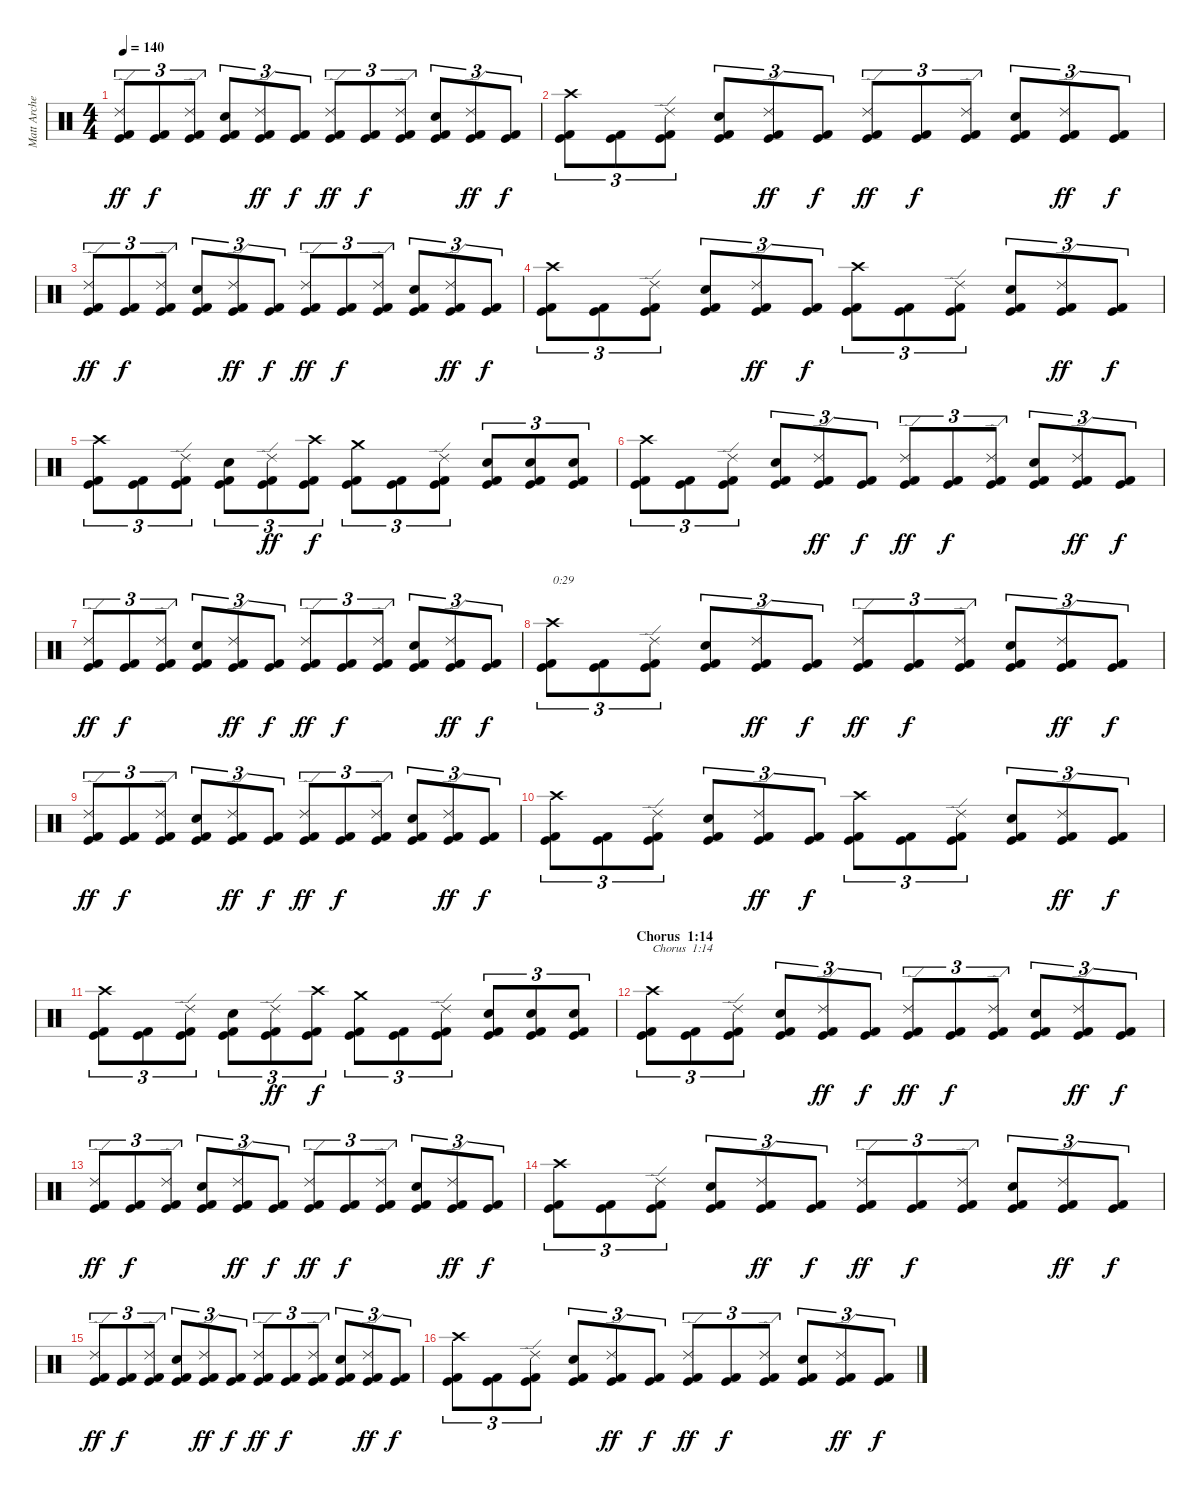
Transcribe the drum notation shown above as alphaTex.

\track ("Matt Archer" "Matt Arche") {instrument percussion}
\staff {score}
\articulation defaults
\ts (4 4)
\tempo 140
\clef neutral
\ks c
("Kick (hit)" "Kick (hit) 2" "Ride (edge) 2").8{tu (3 2) dy ff} ("Kick (hit)" "Kick (hit) 2").8{tu (3 2) dy f} ("Kick (hit)" "Kick (hit) 2" "Ride (edge) 2").8{tu (3 2)} ("Kick (hit)" "Kick (hit) 2" "Electric Snare (hit)").8{tu (3 2)} ("Kick (hit)" "Kick (hit) 2" "Ride (edge) 2").8{tu (3 2) dy ff} ("Kick (hit)" "Kick (hit) 2").8{tu (3 2) dy f} ("Kick (hit)" "Kick (hit) 2" "Ride (edge) 2").8{tu (3 2) dy ff} ("Kick (hit)" "Kick (hit) 2").8{tu (3 2) dy f} ("Kick (hit)" "Kick (hit) 2" "Ride (edge) 2").8{tu (3 2)} ("Kick (hit)" "Kick (hit) 2" "Electric Snare (hit)").8{tu (3 2)} ("Kick (hit)" "Kick (hit) 2" "Ride (edge) 2").8{tu (3 2) dy ff} ("Kick (hit)" "Kick (hit) 2").8{tu (3 2) dy f} |
("Kick (hit)" "Kick (hit) 2" "Crash high (hit)").8{tu (3 2)} ("Kick (hit)" "Kick (hit) 2").8{tu (3 2)} ("Kick (hit)" "Kick (hit) 2" "Ride (edge) 2").8{tu (3 2)} ("Kick (hit)" "Kick (hit) 2" "Electric Snare (hit)").8{tu (3 2)} ("Kick (hit)" "Kick (hit) 2" "Ride (edge) 2").8{tu (3 2) dy ff} ("Kick (hit)" "Kick (hit) 2").8{tu (3 2) dy f} ("Kick (hit)" "Kick (hit) 2" "Ride (edge) 2").8{tu (3 2) dy ff} ("Kick (hit)" "Kick (hit) 2").8{tu (3 2) dy f} ("Kick (hit)" "Kick (hit) 2" "Ride (edge) 2").8{tu (3 2)} ("Kick (hit)" "Kick (hit) 2" "Electric Snare (hit)").8{tu (3 2)} ("Kick (hit)" "Kick (hit) 2" "Ride (edge) 2").8{tu (3 2) dy ff} ("Kick (hit)" "Kick (hit) 2").8{tu (3 2) dy f} |
("Kick (hit)" "Kick (hit) 2" "Ride (edge) 2").8{tu (3 2) dy ff} ("Kick (hit)" "Kick (hit) 2").8{tu (3 2) dy f} ("Kick (hit)" "Kick (hit) 2" "Ride (edge) 2").8{tu (3 2)} ("Kick (hit)" "Kick (hit) 2" "Electric Snare (hit)").8{tu (3 2)} ("Kick (hit)" "Kick (hit) 2" "Ride (edge) 2").8{tu (3 2) dy ff} ("Kick (hit)" "Kick (hit) 2").8{tu (3 2) dy f} ("Kick (hit)" "Kick (hit) 2" "Ride (edge) 2").8{tu (3 2) dy ff} ("Kick (hit)" "Kick (hit) 2").8{tu (3 2) dy f} ("Kick (hit)" "Kick (hit) 2" "Ride (edge) 2").8{tu (3 2)} ("Kick (hit)" "Kick (hit) 2" "Electric Snare (hit)").8{tu (3 2)} ("Kick (hit)" "Kick (hit) 2" "Ride (edge) 2").8{tu (3 2) dy ff} ("Kick (hit)" "Kick (hit) 2").8{tu (3 2) dy f} |
("Kick (hit)" "Kick (hit) 2" "Crash high (hit)").8{tu (3 2)} ("Kick (hit)" "Kick (hit) 2").8{tu (3 2)} ("Kick (hit)" "Kick (hit) 2" "Ride (edge) 2").8{tu (3 2)} ("Kick (hit)" "Kick (hit) 2" "Electric Snare (hit)").8{tu (3 2)} ("Kick (hit)" "Kick (hit) 2" "Ride (edge) 2").8{tu (3 2) dy ff} ("Kick (hit)" "Kick (hit) 2").8{tu (3 2) dy f} ("Kick (hit)" "Kick (hit) 2" "Crash high (hit)").8{tu (3 2)} ("Kick (hit)" "Kick (hit) 2").8{tu (3 2)} ("Kick (hit)" "Kick (hit) 2" "Ride (edge) 2").8{tu (3 2)} ("Kick (hit)" "Kick (hit) 2" "Electric Snare (hit)").8{tu (3 2)} ("Kick (hit)" "Kick (hit) 2" "Ride (edge) 2").8{tu (3 2) dy ff} ("Kick (hit)" "Kick (hit) 2").8{tu (3 2) dy f} |
("Kick (hit)" "Kick (hit) 2" "Crash high (hit)").8{tu (3 2)} ("Kick (hit)" "Kick (hit) 2").8{tu (3 2)} ("Kick (hit)" "Kick (hit) 2" "Ride (edge) 2").8{tu (3 2)} ("Kick (hit)" "Kick (hit) 2" "Electric Snare (hit)").8{tu (3 2)} ("Kick (hit)" "Kick (hit) 2" "Ride (edge) 2").8{tu (3 2) dy ff} ("Kick (hit)" "Kick (hit) 2" "Crash high (hit)").8{tu (3 2) dy f} ("Kick (hit)" "Kick (hit) 2" "Crash medium (hit)").8{tu (3 2)} ("Kick (hit)" "Kick (hit) 2").8{tu (3 2)} ("Kick (hit)" "Kick (hit) 2" "Ride (edge) 2").8{tu (3 2)} ("Kick (hit)" "Kick (hit) 2" "Electric Snare (hit)").8{tu (3 2)} ("Kick (hit)" "Kick (hit) 2" "Electric Snare (hit)").8{tu (3 2)} ("Kick (hit)" "Kick (hit) 2" "Electric Snare (hit)").8{tu (3 2)} |
("Kick (hit)" "Kick (hit) 2" "Crash high (hit)").8{tu (3 2)} ("Kick (hit)" "Kick (hit) 2").8{tu (3 2)} ("Kick (hit)" "Kick (hit) 2" "Ride (edge) 2").8{tu (3 2)} ("Kick (hit)" "Kick (hit) 2" "Electric Snare (hit)").8{tu (3 2)} ("Kick (hit)" "Kick (hit) 2" "Ride (edge) 2").8{tu (3 2) dy ff} ("Kick (hit)" "Kick (hit) 2").8{tu (3 2) dy f} ("Kick (hit)" "Kick (hit) 2" "Ride (edge) 2").8{tu (3 2) dy ff} ("Kick (hit)" "Kick (hit) 2").8{tu (3 2) dy f} ("Kick (hit)" "Kick (hit) 2" "Ride (edge) 2").8{tu (3 2)} ("Kick (hit)" "Kick (hit) 2" "Electric Snare (hit)").8{tu (3 2)} ("Kick (hit)" "Kick (hit) 2" "Ride (edge) 2").8{tu (3 2) dy ff} ("Kick (hit)" "Kick (hit) 2").8{tu (3 2) dy f} |
("Kick (hit)" "Kick (hit) 2" "Ride (edge) 2").8{tu (3 2) dy ff} ("Kick (hit)" "Kick (hit) 2").8{tu (3 2) dy f} ("Kick (hit)" "Kick (hit) 2" "Ride (edge) 2").8{tu (3 2)} ("Kick (hit)" "Kick (hit) 2" "Electric Snare (hit)").8{tu (3 2)} ("Kick (hit)" "Kick (hit) 2" "Ride (edge) 2").8{tu (3 2) dy ff} ("Kick (hit)" "Kick (hit) 2").8{tu (3 2) dy f} ("Kick (hit)" "Kick (hit) 2" "Ride (edge) 2").8{tu (3 2) dy ff} ("Kick (hit)" "Kick (hit) 2").8{tu (3 2) dy f} ("Kick (hit)" "Kick (hit) 2" "Ride (edge) 2").8{tu (3 2)} ("Kick (hit)" "Kick (hit) 2" "Electric Snare (hit)").8{tu (3 2)} ("Kick (hit)" "Kick (hit) 2" "Ride (edge) 2").8{tu (3 2) dy ff} ("Kick (hit)" "Kick (hit) 2").8{tu (3 2) dy f} |
("Kick (hit)" "Kick (hit) 2" "Crash high (hit)").8{tu (3 2) txt "0:29"} ("Kick (hit)" "Kick (hit) 2").8{tu (3 2)} ("Kick (hit)" "Kick (hit) 2" "Ride (edge) 2").8{tu (3 2)} ("Kick (hit)" "Kick (hit) 2" "Electric Snare (hit)").8{tu (3 2)} ("Kick (hit)" "Kick (hit) 2" "Ride (edge) 2").8{tu (3 2) dy ff} ("Kick (hit)" "Kick (hit) 2").8{tu (3 2) dy f} ("Kick (hit)" "Kick (hit) 2" "Ride (edge) 2").8{tu (3 2) dy ff} ("Kick (hit)" "Kick (hit) 2").8{tu (3 2) dy f} ("Kick (hit)" "Kick (hit) 2" "Ride (edge) 2").8{tu (3 2)} ("Kick (hit)" "Kick (hit) 2" "Electric Snare (hit)").8{tu (3 2)} ("Kick (hit)" "Kick (hit) 2" "Ride (edge) 2").8{tu (3 2) dy ff} ("Kick (hit)" "Kick (hit) 2").8{tu (3 2) dy f} |
("Kick (hit)" "Kick (hit) 2" "Ride (edge) 2").8{tu (3 2) dy ff} ("Kick (hit)" "Kick (hit) 2").8{tu (3 2) dy f} ("Kick (hit)" "Kick (hit) 2" "Ride (edge) 2").8{tu (3 2)} ("Kick (hit)" "Kick (hit) 2" "Electric Snare (hit)").8{tu (3 2)} ("Kick (hit)" "Kick (hit) 2" "Ride (edge) 2").8{tu (3 2) dy ff} ("Kick (hit)" "Kick (hit) 2").8{tu (3 2) dy f} ("Kick (hit)" "Kick (hit) 2" "Ride (edge) 2").8{tu (3 2) dy ff} ("Kick (hit)" "Kick (hit) 2").8{tu (3 2) dy f} ("Kick (hit)" "Kick (hit) 2" "Ride (edge) 2").8{tu (3 2)} ("Kick (hit)" "Kick (hit) 2" "Electric Snare (hit)").8{tu (3 2)} ("Kick (hit)" "Kick (hit) 2" "Ride (edge) 2").8{tu (3 2) dy ff} ("Kick (hit)" "Kick (hit) 2").8{tu (3 2) dy f} |
("Kick (hit)" "Kick (hit) 2" "Crash high (hit)").8{tu (3 2)} ("Kick (hit)" "Kick (hit) 2").8{tu (3 2)} ("Kick (hit)" "Kick (hit) 2" "Ride (edge) 2").8{tu (3 2)} ("Kick (hit)" "Kick (hit) 2" "Electric Snare (hit)").8{tu (3 2)} ("Kick (hit)" "Kick (hit) 2" "Ride (edge) 2").8{tu (3 2) dy ff} ("Kick (hit)" "Kick (hit) 2").8{tu (3 2) dy f} ("Kick (hit)" "Kick (hit) 2" "Crash high (hit)").8{tu (3 2)} ("Kick (hit)" "Kick (hit) 2").8{tu (3 2)} ("Kick (hit)" "Kick (hit) 2" "Ride (edge) 2").8{tu (3 2)} ("Kick (hit)" "Kick (hit) 2" "Electric Snare (hit)").8{tu (3 2)} ("Kick (hit)" "Kick (hit) 2" "Ride (edge) 2").8{tu (3 2) dy ff} ("Kick (hit)" "Kick (hit) 2").8{tu (3 2) dy f} |
("Kick (hit)" "Kick (hit) 2" "Crash high (hit)").8{tu (3 2)} ("Kick (hit)" "Kick (hit) 2").8{tu (3 2)} ("Kick (hit)" "Kick (hit) 2" "Ride (edge) 2").8{tu (3 2)} ("Kick (hit)" "Kick (hit) 2" "Electric Snare (hit)").8{tu (3 2)} ("Kick (hit)" "Kick (hit) 2" "Ride (edge) 2").8{tu (3 2) dy ff} ("Kick (hit)" "Kick (hit) 2" "Crash high (hit)").8{tu (3 2) dy f} ("Kick (hit)" "Kick (hit) 2" "Crash medium (hit)").8{tu (3 2)} ("Kick (hit)" "Kick (hit) 2").8{tu (3 2)} ("Kick (hit)" "Kick (hit) 2" "Ride (edge) 2").8{tu (3 2)} ("Kick (hit)" "Kick (hit) 2" "Electric Snare (hit)").8{tu (3 2)} ("Kick (hit)" "Kick (hit) 2" "Electric Snare (hit)").8{tu (3 2)} ("Kick (hit)" "Kick (hit) 2" "Electric Snare (hit)").8{tu (3 2)} |
\section ("" "Chorus  1:14")
("Kick (hit)" "Kick (hit) 2" "Crash high (hit)").8{tu (3 2) txt "Chorus  1:14"} ("Kick (hit)" "Kick (hit) 2").8{tu (3 2)} ("Kick (hit)" "Kick (hit) 2" "Ride (edge) 2").8{tu (3 2)} ("Kick (hit)" "Kick (hit) 2" "Electric Snare (hit)").8{tu (3 2)} ("Kick (hit)" "Kick (hit) 2" "Ride (edge) 2").8{tu (3 2) dy ff} ("Kick (hit)" "Kick (hit) 2").8{tu (3 2) dy f} ("Kick (hit)" "Kick (hit) 2" "Ride (edge) 2").8{tu (3 2) dy ff} ("Kick (hit)" "Kick (hit) 2").8{tu (3 2) dy f} ("Kick (hit)" "Kick (hit) 2" "Ride (edge) 2").8{tu (3 2)} ("Kick (hit)" "Kick (hit) 2" "Electric Snare (hit)").8{tu (3 2)} ("Kick (hit)" "Kick (hit) 2" "Ride (edge) 2").8{tu (3 2) dy ff} ("Kick (hit)" "Kick (hit) 2").8{tu (3 2) dy f} |
("Kick (hit)" "Kick (hit) 2" "Ride (edge) 2").8{tu (3 2) dy ff} ("Kick (hit)" "Kick (hit) 2").8{tu (3 2) dy f} ("Kick (hit)" "Kick (hit) 2" "Ride (edge) 2").8{tu (3 2)} ("Kick (hit)" "Kick (hit) 2" "Electric Snare (hit)").8{tu (3 2)} ("Kick (hit)" "Kick (hit) 2" "Ride (edge) 2").8{tu (3 2) dy ff} ("Kick (hit)" "Kick (hit) 2").8{tu (3 2) dy f} ("Kick (hit)" "Kick (hit) 2" "Ride (edge) 2").8{tu (3 2) dy ff} ("Kick (hit)" "Kick (hit) 2").8{tu (3 2) dy f} ("Kick (hit)" "Kick (hit) 2" "Ride (edge) 2").8{tu (3 2)} ("Kick (hit)" "Kick (hit) 2" "Electric Snare (hit)").8{tu (3 2)} ("Kick (hit)" "Kick (hit) 2" "Ride (edge) 2").8{tu (3 2) dy ff} ("Kick (hit)" "Kick (hit) 2").8{tu (3 2) dy f} |
("Kick (hit)" "Kick (hit) 2" "Crash high (hit)").8{tu (3 2)} ("Kick (hit)" "Kick (hit) 2").8{tu (3 2)} ("Kick (hit)" "Kick (hit) 2" "Ride (edge) 2").8{tu (3 2)} ("Kick (hit)" "Kick (hit) 2" "Electric Snare (hit)").8{tu (3 2)} ("Kick (hit)" "Kick (hit) 2" "Ride (edge) 2").8{tu (3 2) dy ff} ("Kick (hit)" "Kick (hit) 2").8{tu (3 2) dy f} ("Kick (hit)" "Kick (hit) 2" "Ride (edge) 2").8{tu (3 2) dy ff} ("Kick (hit)" "Kick (hit) 2").8{tu (3 2) dy f} ("Kick (hit)" "Kick (hit) 2" "Ride (edge) 2").8{tu (3 2)} ("Kick (hit)" "Kick (hit) 2" "Electric Snare (hit)").8{tu (3 2)} ("Kick (hit)" "Kick (hit) 2" "Ride (edge) 2").8{tu (3 2) dy ff} ("Kick (hit)" "Kick (hit) 2").8{tu (3 2) dy f} |
("Kick (hit)" "Kick (hit) 2" "Ride (edge) 2").8{tu (3 2) dy ff} ("Kick (hit)" "Kick (hit) 2").8{tu (3 2) dy f} ("Kick (hit)" "Kick (hit) 2" "Ride (edge) 2").8{tu (3 2)} ("Kick (hit)" "Kick (hit) 2" "Electric Snare (hit)").8{tu (3 2)} ("Kick (hit)" "Kick (hit) 2" "Ride (edge) 2").8{tu (3 2) dy ff} ("Kick (hit)" "Kick (hit) 2").8{tu (3 2) dy f} ("Kick (hit)" "Kick (hit) 2" "Ride (edge) 2").8{tu (3 2) dy ff} ("Kick (hit)" "Kick (hit) 2").8{tu (3 2) dy f} ("Kick (hit)" "Kick (hit) 2" "Ride (edge) 2").8{tu (3 2)} ("Kick (hit)" "Kick (hit) 2" "Electric Snare (hit)").8{tu (3 2)} ("Kick (hit)" "Kick (hit) 2" "Ride (edge) 2").8{tu (3 2) dy ff} ("Kick (hit)" "Kick (hit) 2").8{tu (3 2) dy f} |
("Kick (hit)" "Kick (hit) 2" "Crash high (hit)").8{tu (3 2)} ("Kick (hit)" "Kick (hit) 2").8{tu (3 2)} ("Kick (hit)" "Kick (hit) 2" "Ride (edge) 2").8{tu (3 2)} ("Kick (hit)" "Kick (hit) 2" "Electric Snare (hit)").8{tu (3 2)} ("Kick (hit)" "Kick (hit) 2" "Ride (edge) 2").8{tu (3 2) dy ff} ("Kick (hit)" "Kick (hit) 2").8{tu (3 2) dy f} ("Kick (hit)" "Kick (hit) 2" "Ride (edge) 2").8{tu (3 2) dy ff} ("Kick (hit)" "Kick (hit) 2").8{tu (3 2) dy f} ("Kick (hit)" "Kick (hit) 2" "Ride (edge) 2").8{tu (3 2)} ("Kick (hit)" "Kick (hit) 2" "Electric Snare (hit)").8{tu (3 2)} ("Kick (hit)" "Kick (hit) 2" "Ride (edge) 2").8{tu (3 2) dy ff} ("Kick (hit)" "Kick (hit) 2").8{tu (3 2) dy f}
